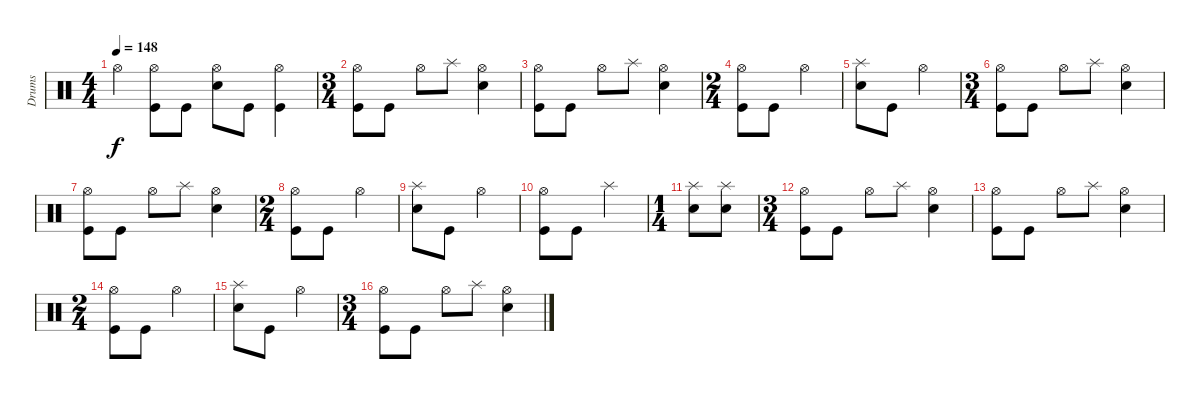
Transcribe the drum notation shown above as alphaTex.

\track ("Drums" "Drums") {instrument percussion}
\staff {score}
\articulation defaults
\ts (4 4)
\tempo 148
\clef neutral
\ks c "Hi-Hat (open)".4{dy f}
("Hi-Hat (open)" "Kick (hit)").8 "Kick (hit)".8 ("Hi-Hat (open)" "Snare (hit) 2").8 "Kick (hit)".8 ("Hi-Hat (open)" "Kick (hit)").4 |
\ts (3 4)
("Hi-Hat (open)" "Kick (hit)").8 "Kick (hit)".8 "Hi-Hat (open)".8 "Splash (hit)".8 ("Hi-Hat (open)" "Snare (hit) 2").4 |
("Hi-Hat (open)" "Kick (hit)").8 "Kick (hit)".8 "Hi-Hat (open)".8 "Splash (hit)".8 ("Hi-Hat (open)" "Snare (hit) 2").4 |
\ts (2 4)
("Hi-Hat (open)" "Kick (hit)").8 "Kick (hit)".8 "Hi-Hat (open)".4 |
("Splash (hit)" "Snare (hit) 2").8 "Kick (hit)".8 "Hi-Hat (open)".4 |
\ts (3 4)
("Hi-Hat (open)" "Kick (hit)").8 "Kick (hit)".8 "Hi-Hat (open)".8 "Splash (hit)".8 ("Hi-Hat (open)" "Snare (hit) 2").4 |
("Hi-Hat (open)" "Kick (hit)").8 "Kick (hit)".8 "Hi-Hat (open)".8 "Splash (hit)".8 ("Hi-Hat (open)" "Snare (hit) 2").4 |
\ts (2 4)
("Hi-Hat (open)" "Kick (hit)").8 "Kick (hit)".8 "Hi-Hat (open)".4 |
("Splash (hit)" "Snare (hit) 2").8 "Kick (hit)".8 "Hi-Hat (open)".4 |
("Hi-Hat (open)" "Kick (hit)").8 "Kick (hit)".8 "Splash (hit)".4 |
\ts (1 4)
("Snare (hit) 2" "Splash (hit)").8 ("Snare (hit) 2" "Splash (hit)").8 |
\ts (3 4)
("Hi-Hat (open)" "Kick (hit)").8 "Kick (hit)".8 "Hi-Hat (open)".8 "Splash (hit)".8 ("Hi-Hat (open)" "Snare (hit) 2").4 |
("Hi-Hat (open)" "Kick (hit)").8 "Kick (hit)".8 "Hi-Hat (open)".8 "Splash (hit)".8 ("Hi-Hat (open)" "Snare (hit) 2").4 |
\ts (2 4)
("Hi-Hat (open)" "Kick (hit)").8 "Kick (hit)".8 "Hi-Hat (open)".4 |
("Splash (hit)" "Snare (hit) 2").8 "Kick (hit)".8 "Hi-Hat (open)".4 |
\ts (3 4)
("Hi-Hat (open)" "Kick (hit)").8 "Kick (hit)".8 "Hi-Hat (open)".8 "Splash (hit)".8 ("Hi-Hat (open)" "Snare (hit) 2").4
